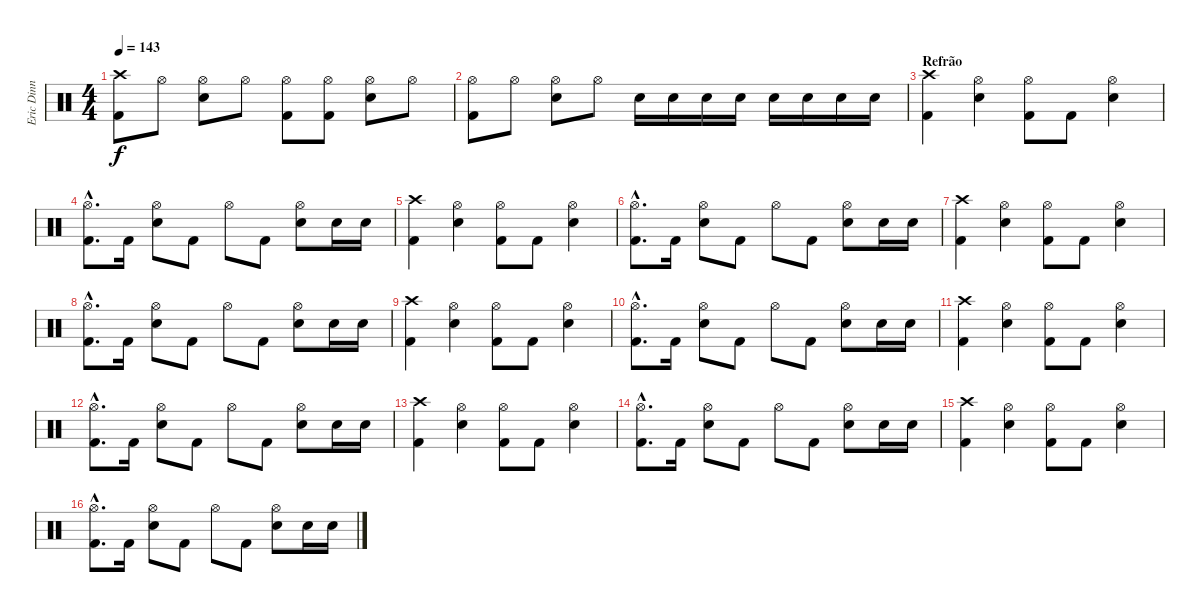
\track ("Eric Dinn" "Eric Dinn") {instrument percussion}
\staff {score}
\articulation defaults
\ts (4 4)
\tempo 143
\clef neutral
\ks c
("Crash high (hit)" "Kick (hit) 2").8{dy f} "Hi-Hat (open)".8 ("Hi-Hat (open)" "Snare (hit) 2").8 "Hi-Hat (open)".8 ("Hi-Hat (open)" "Kick (hit) 2").8 ("Hi-Hat (open)" "Kick (hit) 2").8 ("Hi-Hat (open)" "Snare (hit) 2").8 "Hi-Hat (open)".8 |
("Hi-Hat (open)" "Kick (hit) 2").8 "Hi-Hat (open)".8 ("Hi-Hat (open)" "Snare (hit) 2").8 "Hi-Hat (open)".8 "Snare (hit) 2".16 "Snare (hit) 2".16 "Snare (hit) 2".16 "Snare (hit) 2".16 "Snare (hit) 2".16 "Snare (hit) 2".16 "Snare (hit) 2".16 "Snare (hit) 2".16 |
\section ("" "Refrão")
("Crash high (hit)" "Kick (hit) 2").4 ("Hi-Hat (open)" "Snare (hit) 2").4 ("Hi-Hat (open)" "Kick (hit) 2").8 "Kick (hit) 2".8 ("Hi-Hat (open)" "Snare (hit) 2").4 |
("Hi-Hat (open)"{hac} "Kick (hit) 2"{hac}).8{d} "Kick (hit) 2".16 ("Hi-Hat (open)" "Snare (hit) 2").8 "Kick (hit) 2".8 "Hi-Hat (open)".8 "Kick (hit) 2".8 ("Hi-Hat (open)" "Snare (hit) 2").8 "Snare (hit) 2".16 "Snare (hit) 2".16 |
("Crash high (hit)" "Kick (hit) 2").4 ("Hi-Hat (open)" "Snare (hit) 2").4 ("Hi-Hat (open)" "Kick (hit) 2").8 "Kick (hit) 2".8 ("Hi-Hat (open)" "Snare (hit) 2").4 |
("Hi-Hat (open)"{hac} "Kick (hit) 2"{hac}).8{d} "Kick (hit) 2".16 ("Hi-Hat (open)" "Snare (hit) 2").8 "Kick (hit) 2".8 "Hi-Hat (open)".8 "Kick (hit) 2".8 ("Hi-Hat (open)" "Snare (hit) 2").8 "Snare (hit) 2".16 "Snare (hit) 2".16 |
("Crash high (hit)" "Kick (hit) 2").4 ("Hi-Hat (open)" "Snare (hit) 2").4 ("Hi-Hat (open)" "Kick (hit) 2").8 "Kick (hit) 2".8 ("Hi-Hat (open)" "Snare (hit) 2").4 |
("Hi-Hat (open)"{hac} "Kick (hit) 2"{hac}).8{d} "Kick (hit) 2".16 ("Hi-Hat (open)" "Snare (hit) 2").8 "Kick (hit) 2".8 "Hi-Hat (open)".8 "Kick (hit) 2".8 ("Hi-Hat (open)" "Snare (hit) 2").8 "Snare (hit) 2".16 "Snare (hit) 2".16 |
("Crash high (hit)" "Kick (hit) 2").4 ("Hi-Hat (open)" "Snare (hit) 2").4 ("Hi-Hat (open)" "Kick (hit) 2").8 "Kick (hit) 2".8 ("Hi-Hat (open)" "Snare (hit) 2").4 |
("Hi-Hat (open)"{hac} "Kick (hit) 2"{hac}).8{d} "Kick (hit) 2".16 ("Hi-Hat (open)" "Snare (hit) 2").8 "Kick (hit) 2".8 "Hi-Hat (open)".8 "Kick (hit) 2".8 ("Hi-Hat (open)" "Snare (hit) 2").8 "Snare (hit) 2".16 "Snare (hit) 2".16 |
("Crash high (hit)" "Kick (hit) 2").4 ("Hi-Hat (open)" "Snare (hit) 2").4 ("Hi-Hat (open)" "Kick (hit) 2").8 "Kick (hit) 2".8 ("Hi-Hat (open)" "Snare (hit) 2").4 |
("Hi-Hat (open)"{hac} "Kick (hit) 2"{hac}).8{d} "Kick (hit) 2".16 ("Hi-Hat (open)" "Snare (hit) 2").8 "Kick (hit) 2".8 "Hi-Hat (open)".8 "Kick (hit) 2".8 ("Hi-Hat (open)" "Snare (hit) 2").8 "Snare (hit) 2".16 "Snare (hit) 2".16 |
("Crash high (hit)" "Kick (hit) 2").4 ("Hi-Hat (open)" "Snare (hit) 2").4 ("Hi-Hat (open)" "Kick (hit) 2").8 "Kick (hit) 2".8 ("Hi-Hat (open)" "Snare (hit) 2").4 |
("Hi-Hat (open)"{hac} "Kick (hit) 2"{hac}).8{d} "Kick (hit) 2".16 ("Hi-Hat (open)" "Snare (hit) 2").8 "Kick (hit) 2".8 "Hi-Hat (open)".8 "Kick (hit) 2".8 ("Hi-Hat (open)" "Snare (hit) 2").8 "Snare (hit) 2".16 "Snare (hit) 2".16 |
("Crash high (hit)" "Kick (hit) 2").4 ("Hi-Hat (open)" "Snare (hit) 2").4 ("Hi-Hat (open)" "Kick (hit) 2").8 "Kick (hit) 2".8 ("Hi-Hat (open)" "Snare (hit) 2").4 |
("Hi-Hat (open)"{hac} "Kick (hit) 2"{hac}).8{d} "Kick (hit) 2".16 ("Hi-Hat (open)" "Snare (hit) 2").8 "Kick (hit) 2".8 "Hi-Hat (open)".8 "Kick (hit) 2".8 ("Hi-Hat (open)" "Snare (hit) 2").8 "Snare (hit) 2".16 "Snare (hit) 2".16
